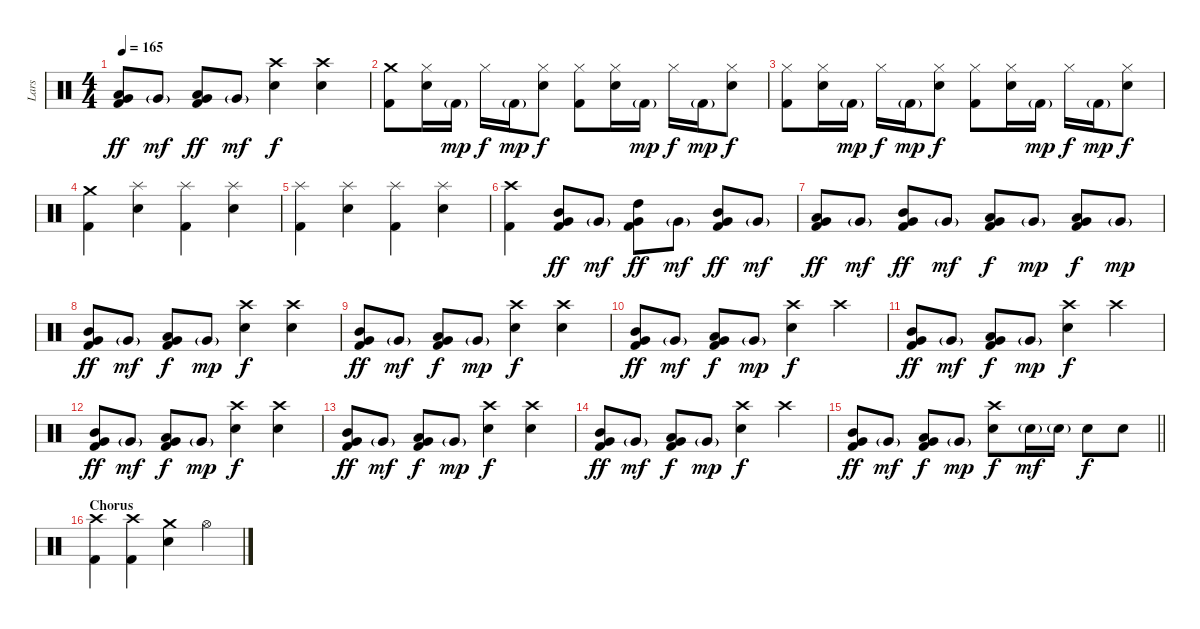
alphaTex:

\track ("Lars" "Lars") {instrument percussion}
\staff {score}
\articulation defaults
\ts (4 4)
\tempo 165
\clef neutral
\ks c
("Low Tom (hit)" "Very Low Tom (hit)" "Kick (hit) 2").8{dy ff} "Very Low Tom (hit)"{g}.8{dy mf} ("Low Tom (hit)" "Very Low Tom (hit)" "Kick (hit) 2").8{dy ff} "Very Low Tom (hit)"{g}.8{dy mf} ("Crash high (hit)" "Snare (hit) 2").4{dy f} ("Crash high (hit)" "Snare (hit) 2").4 |
("Crash medium (hit)" "Kick (hit) 2").8 ("Hi-Hat (closed)" "Snare (hit) 2").16 "Kick (hit) 2"{g}.16{dy mp} "Hi-Hat (closed)".16{dy f} "Kick (hit) 2"{g}.16{dy mp} ("Hi-Hat (closed)" "Snare (hit) 2").8{dy f} ("Hi-Hat (closed)" "Kick (hit) 2").8 ("Hi-Hat (closed)" "Snare (hit) 2").16 "Kick (hit) 2"{g}.16{dy mp} "Hi-Hat (closed)".16{dy f} "Kick (hit) 2"{g}.16{dy mp} ("Hi-Hat (closed)" "Snare (hit) 2").8{dy f} |
("Hi-Hat (closed)" "Kick (hit) 2").8 ("Hi-Hat (closed)" "Snare (hit) 2").16 "Kick (hit) 2"{g}.16{dy mp} "Hi-Hat (closed)".16{dy f} "Kick (hit) 2"{g}.16{dy mp} ("Hi-Hat (closed)" "Snare (hit) 2").8{dy f} ("Hi-Hat (closed)" "Kick (hit) 2").8 ("Hi-Hat (closed)" "Snare (hit) 2").16 "Kick (hit) 2"{g}.16{dy mp} "Hi-Hat (closed)".16{dy f} "Kick (hit) 2"{g}.16{dy mp} ("Hi-Hat (closed)" "Snare (hit) 2").8{dy f} |
("Crash medium (hit)" "Kick (hit) 2").4 ("Splash (hit)" "Snare (hit) 2").4 ("Splash (hit)" "Kick (hit) 2").4 ("Splash (hit)" "Snare (hit) 2").4 |
("Splash (hit)" "Kick (hit) 2").4 ("Splash (hit)" "Snare (hit) 2").4 ("Splash (hit)" "Kick (hit) 2").4 ("Splash (hit)" "Snare (hit) 2").4 |
("Crash high (hit)" "Kick (hit) 2").4 ("Mid Tom (hit)" "Very Low Tom (hit)" "Kick (hit) 2").8{dy ff} "Very Low Tom (hit)"{g}.8{dy mf} ("High Tom (hit)" "Very Low Tom (hit)" "Kick (hit) 2").8{dy ff} "Very Low Tom (hit)"{g}.8{dy mf} ("Mid Tom (hit)" "Very Low Tom (hit)" "Kick (hit) 2").8{dy ff} "Very Low Tom (hit)"{g}.8{dy mf} |
("Low Tom (hit)" "Very Low Tom (hit)" "Kick (hit) 2").8{dy ff} "Very Low Tom (hit)"{g}.8{dy mf} ("Mid Tom (hit)" "Very Low Tom (hit)" "Kick (hit) 2").8{dy ff} "Very Low Tom (hit)"{g}.8{dy mf} ("Low Tom (hit)" "Very Low Tom (hit)" "Kick (hit) 2").8{dy f} "Very Low Tom (hit)"{g}.8{dy mp} ("Low Tom (hit)" "Very Low Tom (hit)" "Kick (hit) 2").8{dy f} "Very Low Tom (hit)"{g}.8{dy mp} |
("Mid Tom (hit)" "Very Low Tom (hit)" "Kick (hit) 2").8{dy ff} "Very Low Tom (hit)"{g}.8{dy mf} ("Low Tom (hit)" "Very Low Tom (hit)" "Kick (hit) 2").8{dy f} "Very Low Tom (hit)"{g}.8{dy mp} ("Crash high (hit)" "Snare (hit) 2").4{dy f} ("Crash high (hit)" "Snare (hit) 2").4 |
("Mid Tom (hit)" "Very Low Tom (hit)" "Kick (hit) 2").8{dy ff} "Very Low Tom (hit)"{g}.8{dy mf} ("Low Tom (hit)" "Very Low Tom (hit)" "Kick (hit) 2").8{dy f} "Very Low Tom (hit)"{g}.8{dy mp} ("Crash high (hit)" "Snare (hit) 2").4{dy f} ("Crash high (hit)" "Snare (hit) 2").4 |
("Mid Tom (hit)" "Very Low Tom (hit)" "Kick (hit) 2").8{dy ff} "Very Low Tom (hit)"{g}.8{dy mf} ("Low Tom (hit)" "Very Low Tom (hit)" "Kick (hit) 2").8{dy f} "Very Low Tom (hit)"{g}.8{dy mp} ("Crash high (hit)" "Snare (hit) 2").4{dy f} "Crash high (hit)".4 |
("Mid Tom (hit)" "Very Low Tom (hit)" "Kick (hit) 2").8{dy ff} "Very Low Tom (hit)"{g}.8{dy mf} ("Low Tom (hit)" "Very Low Tom (hit)" "Kick (hit) 2").8{dy f} "Very Low Tom (hit)"{g}.8{dy mp} ("Crash high (hit)" "Snare (hit) 2").4{dy f} "Crash high (hit)".4 |
("Mid Tom (hit)" "Very Low Tom (hit)" "Kick (hit) 2").8{dy ff} "Very Low Tom (hit)"{g}.8{dy mf} ("Low Tom (hit)" "Very Low Tom (hit)" "Kick (hit) 2").8{dy f} "Very Low Tom (hit)"{g}.8{dy mp} ("Crash high (hit)" "Snare (hit) 2").4{dy f} ("Crash high (hit)" "Snare (hit) 2").4 |
("Mid Tom (hit)" "Very Low Tom (hit)" "Kick (hit) 2").8{dy ff} "Very Low Tom (hit)"{g}.8{dy mf} ("Low Tom (hit)" "Very Low Tom (hit)" "Kick (hit) 2").8{dy f} "Very Low Tom (hit)"{g}.8{dy mp} ("Crash high (hit)" "Snare (hit) 2").4{dy f} ("Crash high (hit)" "Snare (hit) 2").4 |
("Mid Tom (hit)" "Very Low Tom (hit)" "Kick (hit) 2").8{dy ff} "Very Low Tom (hit)"{g}.8{dy mf} ("Low Tom (hit)" "Very Low Tom (hit)" "Kick (hit) 2").8{dy f} "Very Low Tom (hit)"{g}.8{dy mp} ("Crash high (hit)" "Snare (hit) 2").4{dy f} "Crash high (hit)".4 |
\barLineRight lightlight
("Mid Tom (hit)" "Very Low Tom (hit)" "Kick (hit) 2").8{dy ff} "Very Low Tom (hit)"{g}.8{dy mf} ("Low Tom (hit)" "Very Low Tom (hit)" "Kick (hit) 2").8{dy f} "Very Low Tom (hit)"{g}.8{dy mp} ("Crash high (hit)" "Snare (hit) 2").8{dy f} "Snare (hit) 2"{g}.16{dy mf} "Snare (hit) 2"{g}.16 "Snare (hit) 2".8{dy f} "Snare (hit) 2".8 |
\section ("" "Chorus")
("Crash high (hit)" "Kick (hit) 2").4 ("Crash high (hit)" "Kick (hit) 2").4 ("Crash medium (hit)" "Snare (hit) 2").4 "Hi-Hat (open)".4
